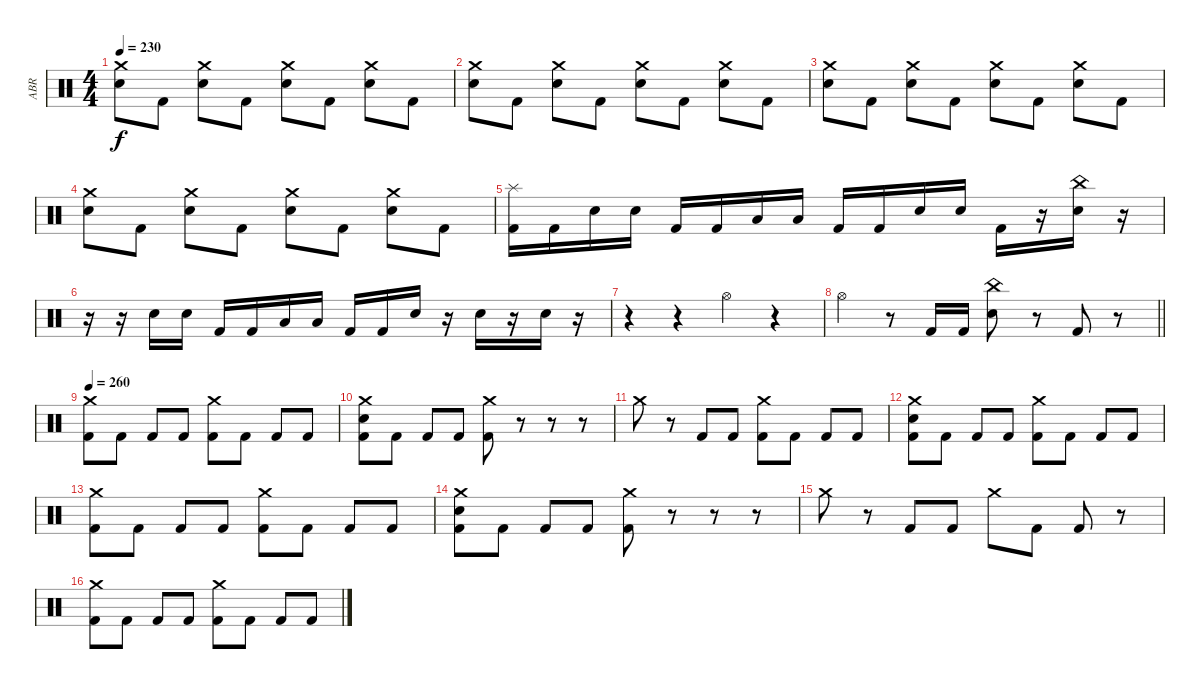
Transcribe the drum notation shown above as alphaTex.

\track ("ABR" "ABR") {instrument percussion}
\staff {score}
\articulation defaults
\ts (4 4)
\tempo 230
\clef neutral
\ks c
("Crash medium (hit)" "Snare (hit) 2").8{dy f} "Kick (hit) 2".8 ("Crash medium (hit)" "Snare (hit) 2").8 "Kick (hit) 2".8 ("Crash medium (hit)" "Snare (hit) 2").8 "Kick (hit) 2".8 ("Crash medium (hit)" "Snare (hit) 2").8 "Kick (hit) 2".8 |
("Crash medium (hit)" "Snare (hit) 2").8 "Kick (hit) 2".8 ("Crash medium (hit)" "Snare (hit) 2").8 "Kick (hit) 2".8 ("Crash medium (hit)" "Snare (hit) 2").8 "Kick (hit) 2".8 ("Crash medium (hit)" "Snare (hit) 2").8 "Kick (hit) 2".8 |
("Crash medium (hit)" "Snare (hit) 2").8 "Kick (hit) 2".8 ("Crash medium (hit)" "Snare (hit) 2").8 "Kick (hit) 2".8 ("Crash medium (hit)" "Snare (hit) 2").8 "Kick (hit) 2".8 ("Crash medium (hit)" "Snare (hit) 2").8 "Kick (hit) 2".8 |
("Crash medium (hit)" "Snare (hit) 2").8 "Kick (hit) 2".8 ("Crash medium (hit)" "Snare (hit) 2").8 "Kick (hit) 2".8 ("Crash medium (hit)" "Snare (hit) 2").8 "Kick (hit) 2".8 ("Crash medium (hit)" "Snare (hit) 2").8 "Kick (hit) 2".8 |
("Splash (hit)" "Kick (hit) 2").16 "Kick (hit) 2".16 "Snare (hit) 2".16 "Snare (hit) 2".16 "Kick (hit) 2".16 "Kick (hit) 2".16 "Low Tom (hit)".16 "Low Tom (hit)".16 "Kick (hit) 2".16 "Kick (hit) 2".16 "Snare (hit) 2".16 "Snare (hit) 2".16 "Kick (hit) 2".16 r.16 ("China (hit)" "Snare (hit) 2").16 r.16 |
r.16 r.16 "Snare (hit) 2".16 "Snare (hit) 2".16 "Kick (hit) 2".16 "Kick (hit) 2".16 "Low Tom (hit)".16 "Low Tom (hit)".16 "Kick (hit) 2".16 "Kick (hit) 2".16 "Snare (hit) 2".16 r.16 "Snare (hit) 2".16 r.16 "Snare (hit) 2".16 r.16 |
r.4 r.4 "Hi-Hat (open)".4 r.4 |
\barLineRight lightlight "Hi-Hat (open)".4
r.8 "Kick (hit) 2".16 "Kick (hit) 2".16 ("China (hit)" "Snare (hit) 2").8 r.8 "Kick (hit) 2".8 r.8 |
\tempo 260
("Crash medium (hit)" "Kick (hit) 2").8 "Kick (hit) 2".8 "Kick (hit) 2".8 "Kick (hit) 2".8 ("Crash medium (hit)" "Kick (hit) 2").8 "Kick (hit) 2".8 "Kick (hit) 2".8 "Kick (hit) 2".8 |
("Crash medium (hit)" "Snare (hit) 2" "Kick (hit) 2").8 "Kick (hit) 2".8 "Kick (hit) 2".8 "Kick (hit) 2".8 ("Crash medium (hit)" "Kick (hit) 2").8 r.8 r.8 r.8 |
"Crash medium (hit)".8 r.8 "Kick (hit) 2".8 "Kick (hit) 2".8 ("Crash medium (hit)" "Kick (hit) 2").8 "Kick (hit) 2".8 "Kick (hit) 2".8 "Kick (hit) 2".8 |
("Crash medium (hit)" "Snare (hit) 2" "Kick (hit) 2").8 "Kick (hit) 2".8 "Kick (hit) 2".8 "Kick (hit) 2".8 ("Crash medium (hit)" "Kick (hit) 2").8 "Kick (hit) 2".8 "Kick (hit) 2".8 "Kick (hit) 2".8 |
("Crash medium (hit)" "Kick (hit) 2").8 "Kick (hit) 2".8 "Kick (hit) 2".8 "Kick (hit) 2".8 ("Crash medium (hit)" "Kick (hit) 2").8 "Kick (hit) 2".8 "Kick (hit) 2".8 "Kick (hit) 2".8 |
("Crash medium (hit)" "Snare (hit) 2" "Kick (hit) 2").8 "Kick (hit) 2".8 "Kick (hit) 2".8 "Kick (hit) 2".8 ("Crash medium (hit)" "Kick (hit) 2").8 r.8 r.8 r.8 |
"Crash medium (hit)".8 r.8 "Kick (hit) 2".8 "Kick (hit) 2".8 "Crash medium (hit)".8 "Kick (hit) 2".8 "Kick (hit) 2".8 r.8 |
("Crash medium (hit)" "Kick (hit) 2").8 "Kick (hit) 2".8 "Kick (hit) 2".8 "Kick (hit) 2".8 ("Crash medium (hit)" "Kick (hit) 2").8 "Kick (hit) 2".8 "Kick (hit) 2".8 "Kick (hit) 2".8
